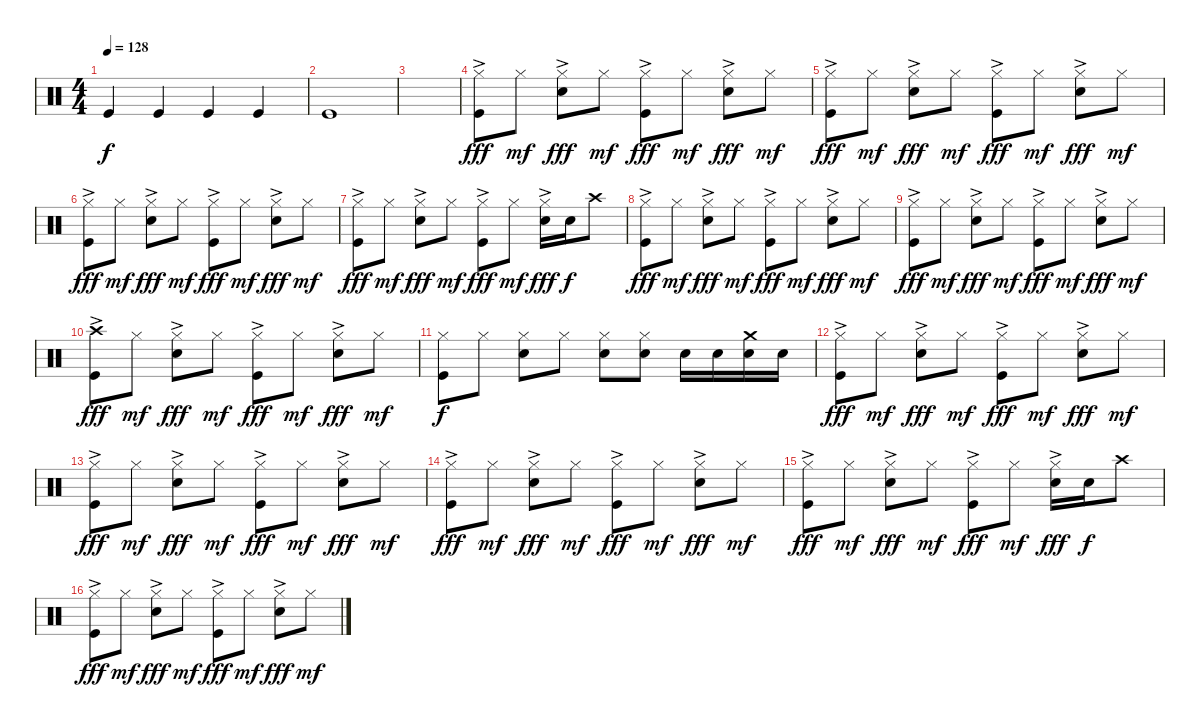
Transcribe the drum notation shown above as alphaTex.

\track "" {instrument percussion}
\staff {score}
\articulation defaults
\ts (4 4)
\tempo 128
\clef neutral
\ks c "Kick (hit)".4{dy f} "Kick (hit)".4 "Kick (hit)".4 "Kick (hit)".4
|
"Kick (hit)".1 |
|
("Hi-Hat (closed)"{ac} "Kick (hit)").8{dy fff} "Hi-Hat (closed)".8{dy mf} ("Hi-Hat (closed)"{ac} "Electric Snare (hit)").8{dy fff} "Hi-Hat (closed)".8{dy mf} ("Hi-Hat (closed)"{ac} "Kick (hit)").8{dy fff} "Hi-Hat (closed)".8{dy mf} ("Hi-Hat (closed)"{ac} "Electric Snare (hit)").8{dy fff} "Hi-Hat (closed)".8{dy mf} |
("Hi-Hat (closed)"{ac} "Kick (hit)").8{dy fff} "Hi-Hat (closed)".8{dy mf} ("Hi-Hat (closed)"{ac} "Electric Snare (hit)").8{dy fff} "Hi-Hat (closed)".8{dy mf} ("Hi-Hat (closed)"{ac} "Kick (hit)").8{dy fff} "Hi-Hat (closed)".8{dy mf} ("Hi-Hat (closed)"{ac} "Electric Snare (hit)").8{dy fff} "Hi-Hat (closed)".8{dy mf} |
("Hi-Hat (closed)"{ac} "Kick (hit)").8{dy fff} "Hi-Hat (closed)".8{dy mf} ("Hi-Hat (closed)"{ac} "Electric Snare (hit)").8{dy fff} "Hi-Hat (closed)".8{dy mf} ("Hi-Hat (closed)"{ac} "Kick (hit)").8{dy fff} "Hi-Hat (closed)".8{dy mf} ("Hi-Hat (closed)"{ac} "Electric Snare (hit)").8{dy fff} "Hi-Hat (closed)".8{dy mf} |
("Hi-Hat (closed)"{ac} "Kick (hit)").8{dy fff} "Hi-Hat (closed)".8{dy mf} ("Hi-Hat (closed)"{ac} "Electric Snare (hit)").8{dy fff} "Hi-Hat (closed)".8{dy mf} ("Hi-Hat (closed)"{ac} "Kick (hit)").8{dy fff} "Hi-Hat (closed)".8{dy mf} ("Hi-Hat (closed)"{ac} "Electric Snare (hit)").16{dy fff} "Electric Snare (hit)".16{dy f} "Crash high (hit)".8 |
("Hi-Hat (closed)"{ac} "Kick (hit)").8{dy fff} "Hi-Hat (closed)".8{dy mf} ("Hi-Hat (closed)"{ac} "Electric Snare (hit)").8{dy fff} "Hi-Hat (closed)".8{dy mf} ("Hi-Hat (closed)"{ac} "Kick (hit)").8{dy fff} "Hi-Hat (closed)".8{dy mf} ("Hi-Hat (closed)"{ac} "Electric Snare (hit)").8{dy fff} "Hi-Hat (closed)".8{dy mf} |
("Hi-Hat (closed)"{ac} "Kick (hit)").8{dy fff} "Hi-Hat (closed)".8{dy mf} ("Hi-Hat (closed)"{ac} "Electric Snare (hit)").8{txt "" dy fff} "Hi-Hat (closed)".8{dy mf} ("Hi-Hat (closed)"{ac} "Kick (hit)").8{dy fff} "Hi-Hat (closed)".8{dy mf} ("Hi-Hat (closed)"{ac} "Electric Snare (hit)").8{dy fff} "Hi-Hat (closed)".8{dy mf} |
("Crash high (hit)"{ac} "Kick (hit)").8{dy fff} "Hi-Hat (closed)".8{dy mf} ("Hi-Hat (closed)"{ac} "Electric Snare (hit)").8{dy fff} "Hi-Hat (closed)".8{dy mf} ("Hi-Hat (closed)"{ac} "Kick (hit)").8{dy fff} "Hi-Hat (closed)".8{dy mf} ("Hi-Hat (closed)"{ac} "Electric Snare (hit)").8{dy fff} "Hi-Hat (closed)".8{dy mf} |
("Hi-Hat (closed)" "Kick (hit)").8{dy f} "Hi-Hat (closed)".8 ("Hi-Hat (closed)" "Electric Snare (hit)").8 "Hi-Hat (closed)".8 ("Hi-Hat (closed)" "Electric Snare (hit)").8 ("Hi-Hat (closed)" "Electric Snare (hit)").8 "Electric Snare (hit)".16 "Electric Snare (hit)".16 ("Crash medium (hit)" "Electric Snare (hit)").16 "Electric Snare (hit)".16 |
("Hi-Hat (closed)"{ac} "Kick (hit)").8{dy fff} "Hi-Hat (closed)".8{dy mf} ("Hi-Hat (closed)"{ac} "Electric Snare (hit)").8{dy fff} "Hi-Hat (closed)".8{dy mf} ("Hi-Hat (closed)"{ac} "Kick (hit)").8{dy fff} "Hi-Hat (closed)".8{dy mf} ("Hi-Hat (closed)"{ac} "Electric Snare (hit)").8{dy fff} "Hi-Hat (closed)".8{dy mf} |
("Hi-Hat (closed)"{ac} "Kick (hit)").8{dy fff} "Hi-Hat (closed)".8{dy mf} ("Hi-Hat (closed)"{ac} "Electric Snare (hit)").8{dy fff} "Hi-Hat (closed)".8{dy mf} ("Hi-Hat (closed)"{ac} "Kick (hit)").8{dy fff} "Hi-Hat (closed)".8{dy mf} ("Hi-Hat (closed)"{ac} "Electric Snare (hit)").8{dy fff} "Hi-Hat (closed)".8{dy mf} |
("Hi-Hat (closed)"{ac} "Kick (hit)").8{dy fff} "Hi-Hat (closed)".8{dy mf} ("Hi-Hat (closed)"{ac} "Electric Snare (hit)").8{dy fff} "Hi-Hat (closed)".8{dy mf} ("Hi-Hat (closed)"{ac} "Kick (hit)").8{dy fff} "Hi-Hat (closed)".8{dy mf} ("Hi-Hat (closed)"{ac} "Electric Snare (hit)").8{dy fff} "Hi-Hat (closed)".8{dy mf} |
("Hi-Hat (closed)"{ac} "Kick (hit)").8{dy fff} "Hi-Hat (closed)".8{dy mf} ("Hi-Hat (closed)"{ac} "Electric Snare (hit)").8{dy fff} "Hi-Hat (closed)".8{dy mf} ("Hi-Hat (closed)"{ac} "Kick (hit)").8{dy fff} "Hi-Hat (closed)".8{dy mf} ("Hi-Hat (closed)"{ac} "Electric Snare (hit)").16{dy fff} "Electric Snare (hit)".16{dy f} "Crash high (hit)".8 |
("Hi-Hat (closed)"{ac} "Kick (hit)").8{dy fff} "Hi-Hat (closed)".8{dy mf} ("Hi-Hat (closed)"{ac} "Electric Snare (hit)").8{dy fff} "Hi-Hat (closed)".8{dy mf} ("Hi-Hat (closed)"{ac} "Kick (hit)").8{dy fff} "Hi-Hat (closed)".8{dy mf} ("Hi-Hat (closed)"{ac} "Electric Snare (hit)").8{dy fff} "Hi-Hat (closed)".8{dy mf}
